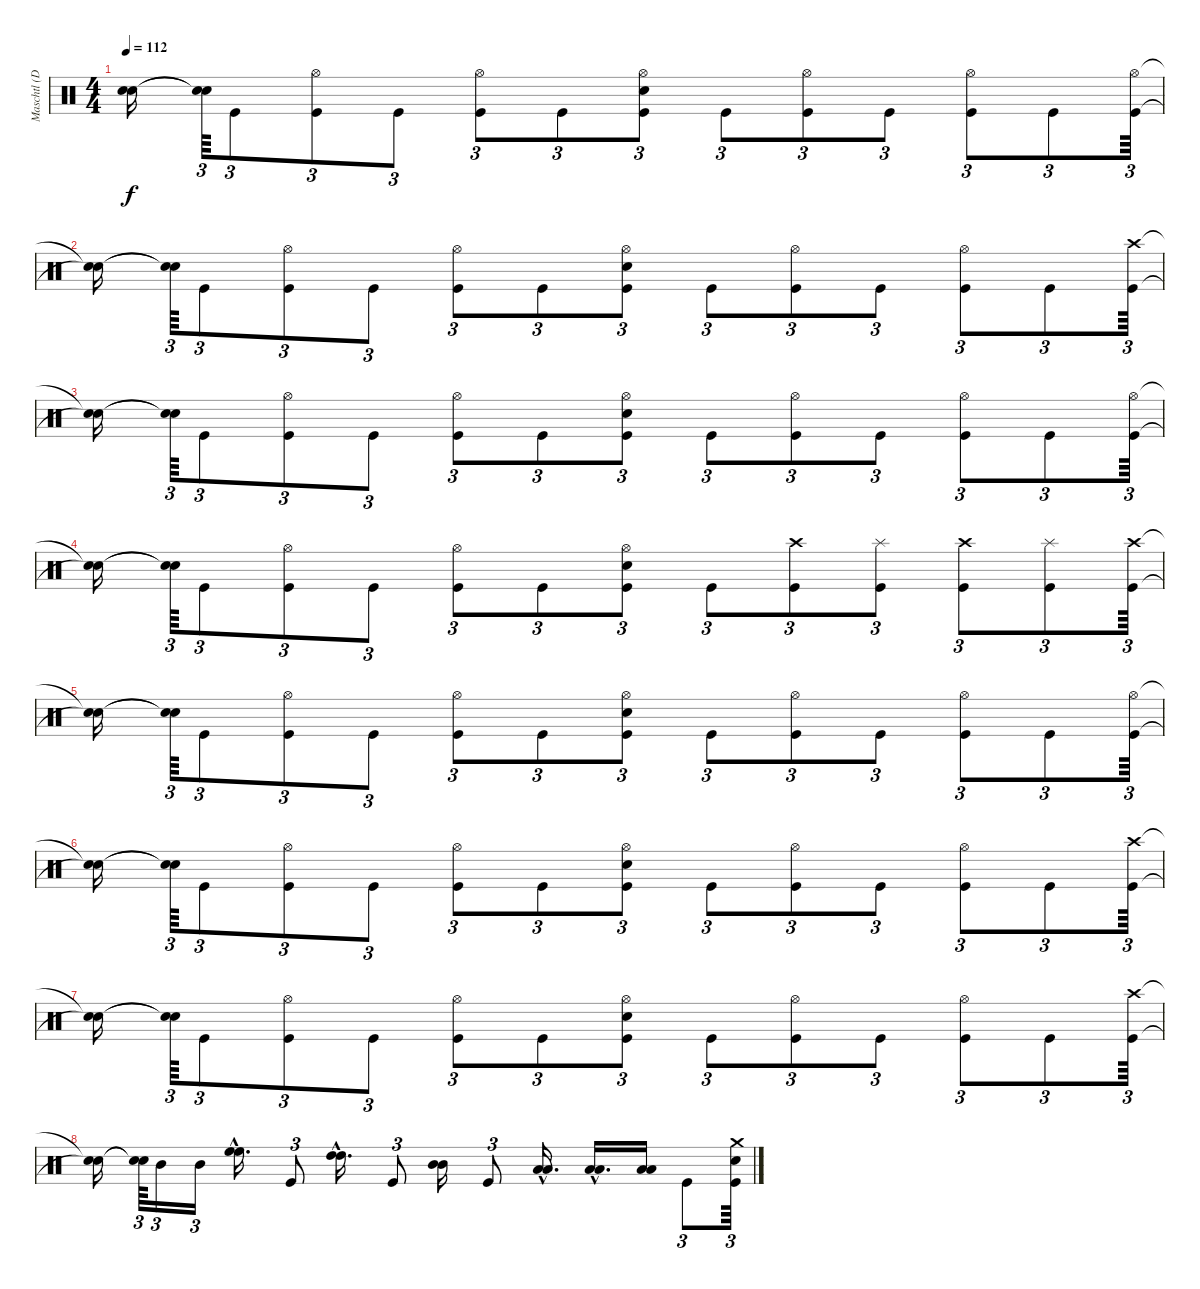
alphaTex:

\track ("Maschtl (Drums)" "Maschtl (D") {instrument percussion}
\staff {score}
\articulation defaults
\ts (4 4)
\tempo 112
\clef neutral
\ks c
("Snare (hit)"{t} "Snare (hit)"{t}).16{dy f} ("Snare (hit)"{t} "Snare (hit)"{t}).64{tu (3 2)} "Kick (hit)".8{tu (3 2)} ("Hi-Hat (open)" "Kick (hit)").8{tu (3 2)} "Kick (hit)".8{tu (3 2)} ("Hi-Hat (open)" "Kick (hit)").8{tu (3 2)} "Kick (hit)".8{tu (3 2)} ("Hi-Hat (open)" "Electric Snare (hit)" "Kick (hit)").8{tu (3 2)} "Kick (hit)".8{tu (3 2)} ("Hi-Hat (open)" "Kick (hit)").8{tu (3 2)} "Kick (hit)".8{tu (3 2)} ("Hi-Hat (open)" "Kick (hit)").8{tu (3 2)} "Kick (hit)".8{tu (3 2)} ("Hi-Hat (open)" "Kick (hit)").64{tu (3 2)} |
("Snare (hit)"{t} "Snare (hit)"{t}).16 ("Snare (hit)"{t} "Snare (hit)"{t}).64{tu (3 2)} "Kick (hit)".8{tu (3 2)} ("Hi-Hat (open)" "Kick (hit)").8{tu (3 2)} "Kick (hit)".8{tu (3 2)} ("Hi-Hat (open)" "Kick (hit)").8{tu (3 2)} "Kick (hit)".8{tu (3 2)} ("Hi-Hat (open)" "Electric Snare (hit)" "Kick (hit)").8{tu (3 2)} "Kick (hit)".8{tu (3 2)} ("Hi-Hat (open)" "Kick (hit)").8{tu (3 2)} "Kick (hit)".8{tu (3 2)} ("Hi-Hat (open)" "Kick (hit)").8{tu (3 2)} "Kick (hit)".8{tu (3 2)} ("Crash high (hit)" "Kick (hit)").64{tu (3 2)} |
("Snare (hit)"{t} "Snare (hit)"{t}).16 ("Snare (hit)"{t} "Snare (hit)"{t}).64{tu (3 2)} "Kick (hit)".8{tu (3 2)} ("Hi-Hat (open)" "Kick (hit)").8{tu (3 2)} "Kick (hit)".8{tu (3 2)} ("Hi-Hat (open)" "Kick (hit)").8{tu (3 2)} "Kick (hit)".8{tu (3 2)} ("Hi-Hat (open)" "Electric Snare (hit)" "Kick (hit)").8{tu (3 2)} "Kick (hit)".8{tu (3 2)} ("Hi-Hat (open)" "Kick (hit)").8{tu (3 2)} "Kick (hit)".8{tu (3 2)} ("Hi-Hat (open)" "Kick (hit)").8{tu (3 2)} "Kick (hit)".8{tu (3 2)} ("Hi-Hat (open)" "Kick (hit)").64{tu (3 2)} |
("Snare (hit)"{t} "Snare (hit)"{t}).16 ("Snare (hit)"{t} "Snare (hit)"{t}).64{tu (3 2)} "Kick (hit)".8{tu (3 2)} ("Hi-Hat (open)" "Kick (hit)").8{tu (3 2)} "Kick (hit)".8{tu (3 2)} ("Hi-Hat (open)" "Kick (hit)").8{tu (3 2)} "Kick (hit)".8{tu (3 2)} ("Hi-Hat (open)" "Electric Snare (hit)" "Kick (hit)").8{tu (3 2)} "Kick (hit)".8{tu (3 2)} ("Crash high (hit)" "Kick (hit)").8{tu (3 2)} ("Splash (hit)" "Kick (hit)").8{tu (3 2)} ("Crash high (hit)" "Kick (hit)").8{tu (3 2)} ("Splash (hit)" "Kick (hit)").8{tu (3 2)} ("Crash high (hit)" "Kick (hit)").64{tu (3 2)} |
("Snare (hit)"{t} "Snare (hit)"{t}).16 ("Snare (hit)"{t} "Snare (hit)"{t}).64{tu (3 2)} "Kick (hit)".8{tu (3 2)} ("Hi-Hat (open)" "Kick (hit)").8{tu (3 2)} "Kick (hit)".8{tu (3 2)} ("Hi-Hat (open)" "Kick (hit)").8{tu (3 2)} "Kick (hit)".8{tu (3 2)} ("Hi-Hat (open)" "Electric Snare (hit)" "Kick (hit)").8{tu (3 2)} "Kick (hit)".8{tu (3 2)} ("Hi-Hat (open)" "Kick (hit)").8{tu (3 2)} "Kick (hit)".8{tu (3 2)} ("Hi-Hat (open)" "Kick (hit)").8{tu (3 2)} "Kick (hit)".8{tu (3 2)} ("Hi-Hat (open)" "Kick (hit)").64{tu (3 2)} |
("Snare (hit)"{t} "Snare (hit)"{t}).16 ("Snare (hit)"{t} "Snare (hit)"{t}).64{tu (3 2)} "Kick (hit)".8{tu (3 2)} ("Hi-Hat (open)" "Kick (hit)").8{tu (3 2)} "Kick (hit)".8{tu (3 2)} ("Hi-Hat (open)" "Kick (hit)").8{tu (3 2)} "Kick (hit)".8{tu (3 2)} ("Hi-Hat (open)" "Electric Snare (hit)" "Kick (hit)").8{tu (3 2)} "Kick (hit)".8{tu (3 2)} ("Hi-Hat (open)" "Kick (hit)").8{tu (3 2)} "Kick (hit)".8{tu (3 2)} ("Hi-Hat (open)" "Kick (hit)").8{tu (3 2)} "Kick (hit)".8{tu (3 2)} ("Crash high (hit)" "Kick (hit)").64{tu (3 2)} |
("Snare (hit)"{t} "Snare (hit)"{t}).16 ("Snare (hit)"{t} "Snare (hit)"{t}).64{tu (3 2)} "Kick (hit)".8{tu (3 2)} ("Hi-Hat (open)" "Kick (hit)").8{tu (3 2)} "Kick (hit)".8{tu (3 2)} ("Hi-Hat (open)" "Kick (hit)").8{tu (3 2)} "Kick (hit)".8{tu (3 2)} ("Hi-Hat (open)" "Electric Snare (hit)" "Kick (hit)").8{tu (3 2)} "Kick (hit)".8{tu (3 2)} ("Hi-Hat (open)" "Kick (hit)").8{tu (3 2)} "Kick (hit)".8{tu (3 2)} ("Hi-Hat (open)" "Kick (hit)").8{tu (3 2)} "Kick (hit)".8{tu (3 2)} ("Crash high (hit)" "Kick (hit)").64{tu (3 2)} |
("Snare (hit)"{t} "Snare (hit)"{t}).16 ("Snare (hit)"{t} "Snare (hit)"{t}).64{tu (3 2)} "Mid Tom (hit)".16{tu (3 2)} "Mid Tom (hit)".16{tu (3 2)} ("High Floor Tom (hit)"{hac} "High Floor Tom (hit)").16{d} "Kick (hit)".8{tu (3 2)} ("High Tom (hit)"{hac} "High Tom (hit)").16{d} "Kick (hit)".8{tu (3 2)} ("Mid Tom (hit)" "Mid Tom (hit)").16 "Kick (hit)".8{tu (3 2)} ("Low Tom (hit)"{hac} "Low Tom (hit)").16{d} ("Low Tom (hit)"{hac} "Low Tom (hit)").16{d} ("Low Tom (hit)" "Low Tom (hit)").16 "Kick (hit)".8{tu (3 2)} ("Crash medium (hit)" "Electric Snare (hit)" "Kick (hit)").64{tu (3 2)}
